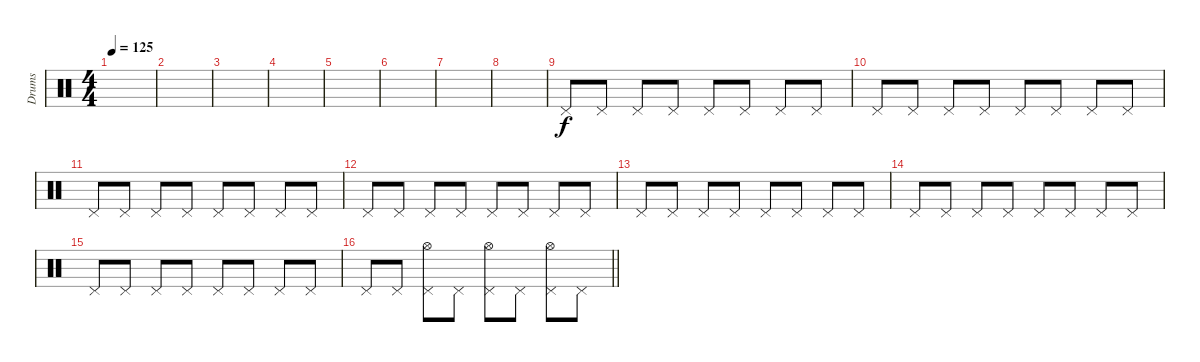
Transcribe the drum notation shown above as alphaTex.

\track ("Drums" "Drums") {instrument percussion}
\staff {score}
\articulation defaults
\ts (4 4)
\tempo 125
\clef neutral
\ks c
|
|
|
|
|
|
|
|
"Pedal Hi-Hat (hit)".8 "Pedal Hi-Hat (hit)".8 "Pedal Hi-Hat (hit)".8 "Pedal Hi-Hat (hit)".8 "Pedal Hi-Hat (hit)".8 "Pedal Hi-Hat (hit)".8 "Pedal Hi-Hat (hit)".8{volume 4} "Pedal Hi-Hat (hit)".8 |
"Pedal Hi-Hat (hit)".8 "Pedal Hi-Hat (hit)".8 "Pedal Hi-Hat (hit)".8 "Pedal Hi-Hat (hit)".8 "Pedal Hi-Hat (hit)".8 "Pedal Hi-Hat (hit)".8 "Pedal Hi-Hat (hit)".8 "Pedal Hi-Hat (hit)".8 |
"Pedal Hi-Hat (hit)".8 "Pedal Hi-Hat (hit)".8 "Pedal Hi-Hat (hit)".8 "Pedal Hi-Hat (hit)".8 "Pedal Hi-Hat (hit)".8 "Pedal Hi-Hat (hit)".8 "Pedal Hi-Hat (hit)".8 "Pedal Hi-Hat (hit)".8 |
"Pedal Hi-Hat (hit)".8 "Pedal Hi-Hat (hit)".8 "Pedal Hi-Hat (hit)".8 "Pedal Hi-Hat (hit)".8 "Pedal Hi-Hat (hit)".8 "Pedal Hi-Hat (hit)".8 "Pedal Hi-Hat (hit)".8 "Pedal Hi-Hat (hit)".8 |
"Pedal Hi-Hat (hit)".8{volume 13} "Pedal Hi-Hat (hit)".8 "Pedal Hi-Hat (hit)".8 "Pedal Hi-Hat (hit)".8 "Pedal Hi-Hat (hit)".8 "Pedal Hi-Hat (hit)".8 "Pedal Hi-Hat (hit)".8{volume 4} "Pedal Hi-Hat (hit)".8 |
"Pedal Hi-Hat (hit)".8 "Pedal Hi-Hat (hit)".8 "Pedal Hi-Hat (hit)".8 "Pedal Hi-Hat (hit)".8 "Pedal Hi-Hat (hit)".8 "Pedal Hi-Hat (hit)".8 "Pedal Hi-Hat (hit)".8 "Pedal Hi-Hat (hit)".8 |
"Pedal Hi-Hat (hit)".8 "Pedal Hi-Hat (hit)".8 "Pedal Hi-Hat (hit)".8 "Pedal Hi-Hat (hit)".8 "Pedal Hi-Hat (hit)".8 "Pedal Hi-Hat (hit)".8 "Pedal Hi-Hat (hit)".8 "Pedal Hi-Hat (hit)".8 |
\barLineRight lightlight "Pedal Hi-Hat (hit)".8 "Pedal Hi-Hat (hit)".8
("Pedal Hi-Hat (hit)" "Hi-Hat (open)").8{volume 13} "Pedal Hi-Hat (hit)".8 ("Pedal Hi-Hat (hit)" "Hi-Hat (open)").8 "Pedal Hi-Hat (hit)".8 ("Pedal Hi-Hat (hit)" "Hi-Hat (open)").8 "Pedal Hi-Hat (hit)".8
